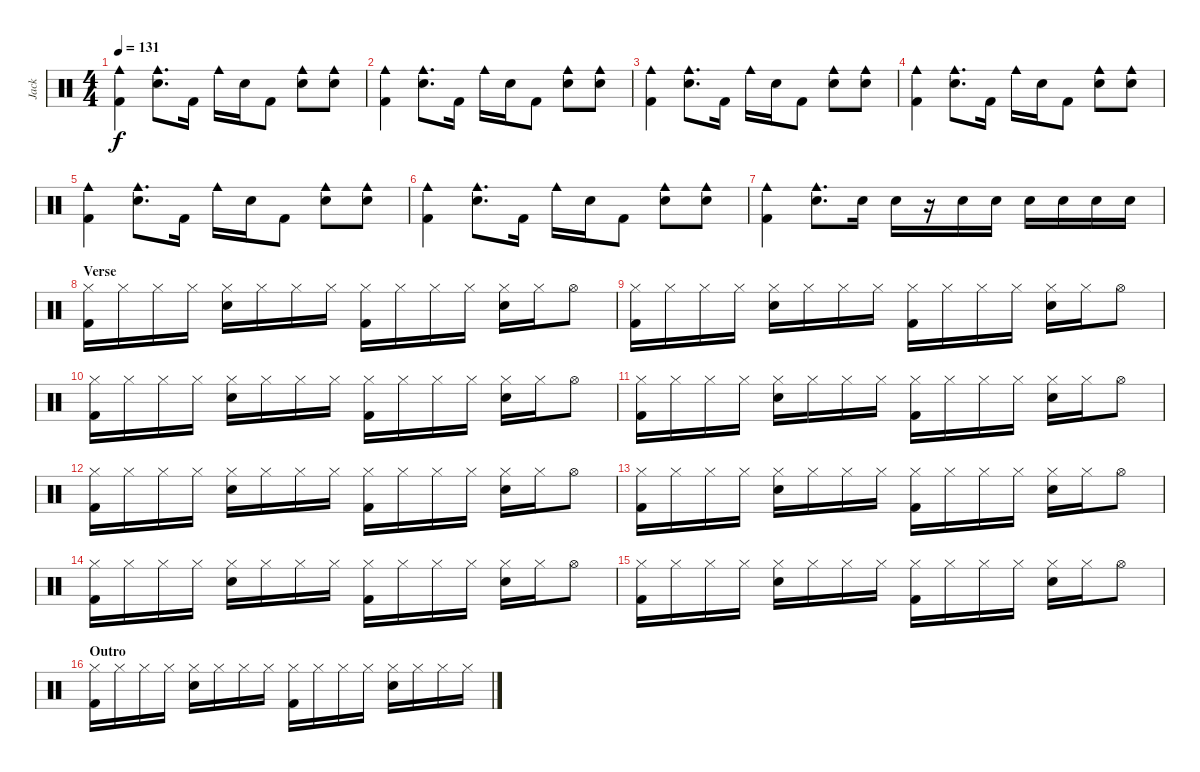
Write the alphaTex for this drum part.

\track ("Jack" "Jack") {instrument percussion}
\staff {score}
\articulation defaults
\ts (4 4)
\tempo 131
\clef neutral
\ks c
("Kick (hit) 2" "Cowbell medium (hit)").4{dy f} ("Electric Snare (hit)" "Cowbell medium (hit)").8{d} "Kick (hit) 2".16 "Cowbell medium (hit)".16 "Electric Snare (hit)".16 "Kick (hit) 2".8 ("Electric Snare (hit)" "Cowbell medium (hit)").8 ("Electric Snare (hit)" "Cowbell medium (hit)").8 |
("Kick (hit) 2" "Cowbell medium (hit)").4 ("Electric Snare (hit)" "Cowbell medium (hit)").8{d} "Kick (hit) 2".16 "Cowbell medium (hit)".16 "Electric Snare (hit)".16 "Kick (hit) 2".8 ("Electric Snare (hit)" "Cowbell medium (hit)").8 ("Electric Snare (hit)" "Cowbell medium (hit)").8 |
("Kick (hit) 2" "Cowbell medium (hit)").4 ("Electric Snare (hit)" "Cowbell medium (hit)").8{d} "Kick (hit) 2".16 "Cowbell medium (hit)".16 "Electric Snare (hit)".16 "Kick (hit) 2".8 ("Electric Snare (hit)" "Cowbell medium (hit)").8 ("Electric Snare (hit)" "Cowbell medium (hit)").8 |
("Kick (hit) 2" "Cowbell medium (hit)").4 ("Electric Snare (hit)" "Cowbell medium (hit)").8{d} "Kick (hit) 2".16 "Cowbell medium (hit)".16 "Electric Snare (hit)".16 "Kick (hit) 2".8 ("Electric Snare (hit)" "Cowbell medium (hit)").8 ("Electric Snare (hit)" "Cowbell medium (hit)").8 |
("Kick (hit) 2" "Cowbell medium (hit)").4 ("Electric Snare (hit)" "Cowbell medium (hit)").8{d} "Kick (hit) 2".16 "Cowbell medium (hit)".16 "Electric Snare (hit)".16 "Kick (hit) 2".8 ("Electric Snare (hit)" "Cowbell medium (hit)").8 ("Electric Snare (hit)" "Cowbell medium (hit)").8 |
("Kick (hit) 2" "Cowbell medium (hit)").4 ("Electric Snare (hit)" "Cowbell medium (hit)").8{d} "Kick (hit) 2".16 "Cowbell medium (hit)".16 "Electric Snare (hit)".16 "Kick (hit) 2".8 ("Electric Snare (hit)" "Cowbell medium (hit)").8 ("Electric Snare (hit)" "Cowbell medium (hit)").8 |
("Kick (hit) 2" "Cowbell medium (hit)").4 ("Electric Snare (hit)" "Cowbell medium (hit)").8{d} "Electric Snare (hit)".16 "Electric Snare (hit)".16 r.16 "Electric Snare (hit)".16 "Electric Snare (hit)".16 "Electric Snare (hit)".16 "Electric Snare (hit)".16 "Electric Snare (hit)".16 "Electric Snare (hit)".16 |
\section ("" "Verse")
("Hi-Hat (closed)" "Kick (hit) 2").16 "Hi-Hat (closed)".16 "Hi-Hat (closed)".16 "Hi-Hat (closed)".16 ("Hi-Hat (closed)" "Electric Snare (hit)").16 "Hi-Hat (closed)".16 "Hi-Hat (closed)".16 "Hi-Hat (closed)".16 ("Hi-Hat (closed)" "Kick (hit) 2").16 "Hi-Hat (closed)".16 "Hi-Hat (closed)".16 "Hi-Hat (closed)".16 ("Hi-Hat (closed)" "Electric Snare (hit)").16 "Hi-Hat (closed)".16 "Hi-Hat (open)".8 |
("Hi-Hat (closed)" "Kick (hit) 2").16 "Hi-Hat (closed)".16 "Hi-Hat (closed)".16 "Hi-Hat (closed)".16 ("Hi-Hat (closed)" "Electric Snare (hit)").16 "Hi-Hat (closed)".16 "Hi-Hat (closed)".16 "Hi-Hat (closed)".16 ("Hi-Hat (closed)" "Kick (hit) 2").16 "Hi-Hat (closed)".16 "Hi-Hat (closed)".16 "Hi-Hat (closed)".16 ("Hi-Hat (closed)" "Electric Snare (hit)").16 "Hi-Hat (closed)".16 "Hi-Hat (open)".8 |
("Hi-Hat (closed)" "Kick (hit) 2").16 "Hi-Hat (closed)".16 "Hi-Hat (closed)".16 "Hi-Hat (closed)".16 ("Hi-Hat (closed)" "Electric Snare (hit)").16 "Hi-Hat (closed)".16 "Hi-Hat (closed)".16 "Hi-Hat (closed)".16 ("Hi-Hat (closed)" "Kick (hit) 2").16 "Hi-Hat (closed)".16 "Hi-Hat (closed)".16 "Hi-Hat (closed)".16 ("Hi-Hat (closed)" "Electric Snare (hit)").16 "Hi-Hat (closed)".16 "Hi-Hat (open)".8 |
("Hi-Hat (closed)" "Kick (hit) 2").16 "Hi-Hat (closed)".16 "Hi-Hat (closed)".16 "Hi-Hat (closed)".16 ("Hi-Hat (closed)" "Electric Snare (hit)").16 "Hi-Hat (closed)".16 "Hi-Hat (closed)".16 "Hi-Hat (closed)".16 ("Hi-Hat (closed)" "Kick (hit) 2").16 "Hi-Hat (closed)".16 "Hi-Hat (closed)".16 "Hi-Hat (closed)".16 ("Hi-Hat (closed)" "Electric Snare (hit)").16 "Hi-Hat (closed)".16 "Hi-Hat (open)".8 |
("Hi-Hat (closed)" "Kick (hit) 2").16 "Hi-Hat (closed)".16 "Hi-Hat (closed)".16 "Hi-Hat (closed)".16 ("Hi-Hat (closed)" "Electric Snare (hit)").16 "Hi-Hat (closed)".16 "Hi-Hat (closed)".16 "Hi-Hat (closed)".16 ("Hi-Hat (closed)" "Kick (hit) 2").16 "Hi-Hat (closed)".16 "Hi-Hat (closed)".16 "Hi-Hat (closed)".16 ("Hi-Hat (closed)" "Electric Snare (hit)").16 "Hi-Hat (closed)".16 "Hi-Hat (open)".8 |
("Hi-Hat (closed)" "Kick (hit) 2").16 "Hi-Hat (closed)".16 "Hi-Hat (closed)".16 "Hi-Hat (closed)".16 ("Hi-Hat (closed)" "Electric Snare (hit)").16 "Hi-Hat (closed)".16 "Hi-Hat (closed)".16 "Hi-Hat (closed)".16 ("Hi-Hat (closed)" "Kick (hit) 2").16 "Hi-Hat (closed)".16 "Hi-Hat (closed)".16 "Hi-Hat (closed)".16 ("Hi-Hat (closed)" "Electric Snare (hit)").16 "Hi-Hat (closed)".16 "Hi-Hat (open)".8 |
("Hi-Hat (closed)" "Kick (hit) 2").16 "Hi-Hat (closed)".16 "Hi-Hat (closed)".16 "Hi-Hat (closed)".16 ("Hi-Hat (closed)" "Electric Snare (hit)").16 "Hi-Hat (closed)".16 "Hi-Hat (closed)".16 "Hi-Hat (closed)".16 ("Hi-Hat (closed)" "Kick (hit) 2").16 "Hi-Hat (closed)".16 "Hi-Hat (closed)".16 "Hi-Hat (closed)".16 ("Hi-Hat (closed)" "Electric Snare (hit)").16 "Hi-Hat (closed)".16 "Hi-Hat (open)".8 |
("Hi-Hat (closed)" "Kick (hit) 2").16 "Hi-Hat (closed)".16 "Hi-Hat (closed)".16 "Hi-Hat (closed)".16 ("Hi-Hat (closed)" "Electric Snare (hit)").16 "Hi-Hat (closed)".16 "Hi-Hat (closed)".16 "Hi-Hat (closed)".16 ("Hi-Hat (closed)" "Kick (hit) 2").16 "Hi-Hat (closed)".16 "Hi-Hat (closed)".16 "Hi-Hat (closed)".16 ("Hi-Hat (closed)" "Electric Snare (hit)").16 "Hi-Hat (closed)".16 "Hi-Hat (open)".8 |
\section ("" "Outro")
("Hi-Hat (closed)" "Kick (hit) 2").16 "Hi-Hat (closed)".16 "Hi-Hat (closed)".16 "Hi-Hat (closed)".16 ("Hi-Hat (closed)" "Electric Snare (hit)").16 "Hi-Hat (closed)".16 "Hi-Hat (closed)".16 "Hi-Hat (closed)".16 ("Hi-Hat (closed)" "Kick (hit) 2").16 "Hi-Hat (closed)".16 "Hi-Hat (closed)".16 "Hi-Hat (closed)".16 ("Hi-Hat (closed)" "Electric Snare (hit)").16 "Hi-Hat (closed)".16 "Hi-Hat (closed)".16 "Hi-Hat (closed)".16
